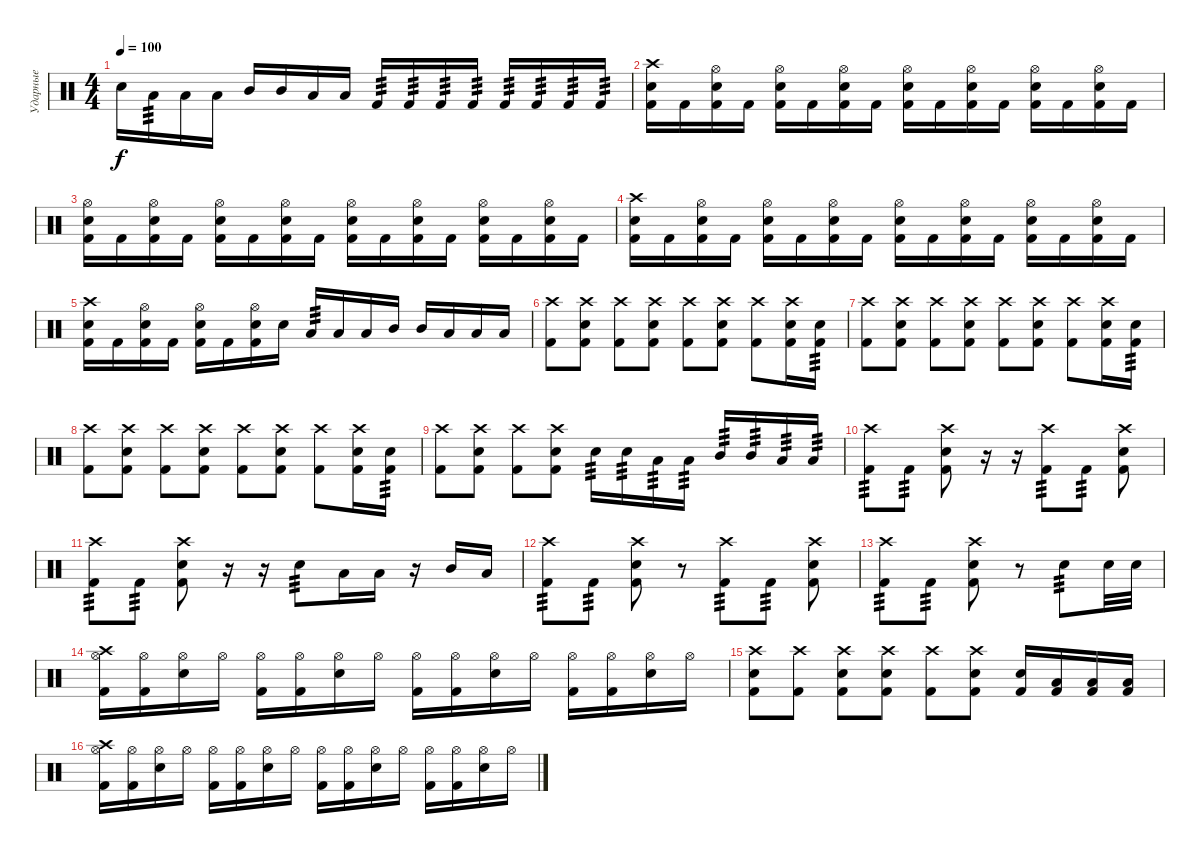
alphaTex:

\track ("Ударные" "Ударные") {instrument percussion}
\staff {score}
\articulation defaults
\ts (4 4)
\tempo 100
\clef neutral
\ks c "Snare (hit) 2".16{dy f} "Low Tom (hit)".16{tp 3} "Low Tom (hit)".16 "Low Tom (hit)".16 "Mid Tom (hit)".16 "Mid Tom (hit)".16 "Low Floor Tom (hit)".16 "Low Floor Tom (hit)".16 "Kick (hit) 2".16{tp 3} "Kick (hit) 2".16{tp 3} "Kick (hit) 2".16{tp 3} "Kick (hit) 2".16{tp 3} "Kick (hit) 2".16{tp 3} "Kick (hit) 2".16{tp 3} "Kick (hit) 2".16{tp 3} "Kick (hit) 2".16{tp 3}
|
("Crash high (hit)" "Snare (hit) 2" "Kick (hit) 2").16 "Kick (hit) 2".16 ("Hi-Hat (open)" "Snare (hit) 2" "Kick (hit) 2").16 "Kick (hit) 2".16 ("Hi-Hat (open)" "Snare (hit) 2" "Kick (hit) 2").16 "Kick (hit) 2".16 ("Hi-Hat (open)" "Snare (hit) 2" "Kick (hit) 2").16 "Kick (hit) 2".16 ("Hi-Hat (open)" "Snare (hit) 2" "Kick (hit) 2").16 "Kick (hit) 2".16 ("Hi-Hat (open)" "Snare (hit) 2" "Kick (hit) 2").16 "Kick (hit) 2".16 ("Hi-Hat (open)" "Snare (hit) 2" "Kick (hit) 2").16 "Kick (hit) 2".16 ("Hi-Hat (open)" "Snare (hit) 2" "Kick (hit) 2").16 "Kick (hit) 2".16 |
("Hi-Hat (open)" "Snare (hit) 2" "Kick (hit) 2").16 "Kick (hit) 2".16 ("Hi-Hat (open)" "Snare (hit) 2" "Kick (hit) 2").16 "Kick (hit) 2".16 ("Hi-Hat (open)" "Snare (hit) 2" "Kick (hit) 2").16 "Kick (hit) 2".16 ("Hi-Hat (open)" "Snare (hit) 2" "Kick (hit) 2").16 "Kick (hit) 2".16 ("Hi-Hat (open)" "Snare (hit) 2" "Kick (hit) 2").16 "Kick (hit) 2".16 ("Hi-Hat (open)" "Snare (hit) 2" "Kick (hit) 2").16 "Kick (hit) 2".16 ("Hi-Hat (open)" "Snare (hit) 2" "Kick (hit) 2").16 "Kick (hit) 2".16 ("Hi-Hat (open)" "Snare (hit) 2" "Kick (hit) 2").16 "Kick (hit) 2".16 |
("Crash high (hit)" "Snare (hit) 2" "Kick (hit) 2").16 "Kick (hit) 2".16 ("Hi-Hat (open)" "Snare (hit) 2" "Kick (hit) 2").16 "Kick (hit) 2".16 ("Hi-Hat (open)" "Snare (hit) 2" "Kick (hit) 2").16 "Kick (hit) 2".16 ("Hi-Hat (open)" "Snare (hit) 2" "Kick (hit) 2").16 "Kick (hit) 2".16 ("Hi-Hat (open)" "Snare (hit) 2" "Kick (hit) 2").16 "Kick (hit) 2".16 ("Hi-Hat (open)" "Snare (hit) 2" "Kick (hit) 2").16 "Kick (hit) 2".16 ("Hi-Hat (open)" "Snare (hit) 2" "Kick (hit) 2").16 "Kick (hit) 2".16 ("Hi-Hat (open)" "Snare (hit) 2" "Kick (hit) 2").16 "Kick (hit) 2".16 |
("Crash high (hit)" "Snare (hit) 2" "Kick (hit) 2").16 "Kick (hit) 2".16 ("Hi-Hat (open)" "Snare (hit) 2" "Kick (hit) 2").16 "Kick (hit) 2".16 ("Hi-Hat (open)" "Snare (hit) 2" "Kick (hit) 2").16 "Kick (hit) 2".16 ("Hi-Hat (open)" "Snare (hit) 2" "Kick (hit) 2").16 "Snare (hit) 2".16 "Low Tom (hit)".16{tp 3} "Low Tom (hit)".16 "Low Tom (hit)".16 "Mid Tom (hit)".16 "Mid Tom (hit)".16 "Low Floor Tom (hit)".16 "Low Floor Tom (hit)".16 "Low Floor Tom (hit)".16 |
("Crash high (hit)" "Kick (hit) 2").8 ("Crash high (hit)" "Snare (hit) 2" "Kick (hit) 2").8 ("Crash high (hit)" "Kick (hit) 2").8 ("Crash high (hit)" "Snare (hit) 2" "Kick (hit) 2").8 ("Crash high (hit)" "Kick (hit) 2").8 ("Crash high (hit)" "Snare (hit) 2" "Kick (hit) 2").8 ("Crash high (hit)" "Kick (hit) 2").8 ("Crash high (hit)" "Snare (hit) 2" "Kick (hit) 2").16 ("Snare (hit) 2" "Kick (hit) 2").16{tp 3} |
("Crash high (hit)" "Kick (hit) 2").8 ("Crash high (hit)" "Snare (hit) 2" "Kick (hit) 2").8 ("Crash high (hit)" "Kick (hit) 2").8 ("Crash high (hit)" "Snare (hit) 2" "Kick (hit) 2").8 ("Crash high (hit)" "Kick (hit) 2").8 ("Crash high (hit)" "Snare (hit) 2" "Kick (hit) 2").8 ("Crash high (hit)" "Kick (hit) 2").8 ("Crash high (hit)" "Snare (hit) 2" "Kick (hit) 2").16 ("Snare (hit) 2" "Kick (hit) 2").16{tp 3} |
("Crash high (hit)" "Kick (hit) 2").8 ("Crash high (hit)" "Snare (hit) 2" "Kick (hit) 2").8 ("Crash high (hit)" "Kick (hit) 2").8 ("Crash high (hit)" "Snare (hit) 2" "Kick (hit) 2").8 ("Crash high (hit)" "Kick (hit) 2").8 ("Crash high (hit)" "Snare (hit) 2" "Kick (hit) 2").8 ("Crash high (hit)" "Kick (hit) 2").8 ("Crash high (hit)" "Snare (hit) 2" "Kick (hit) 2").16 ("Snare (hit) 2" "Kick (hit) 2").16{tp 3} |
("Crash high (hit)" "Kick (hit) 2").8 ("Crash high (hit)" "Snare (hit) 2" "Kick (hit) 2").8 ("Crash high (hit)" "Kick (hit) 2").8 ("Crash high (hit)" "Snare (hit) 2" "Kick (hit) 2").8 "Snare (hit) 2".16{tp 3} "Snare (hit) 2".16{tp 3} "Low Tom (hit)".16{tp 3} "Low Tom (hit)".16{tp 3} "Mid Tom (hit)".16{tp 3} "Mid Tom (hit)".16{tp 3} "Low Floor Tom (hit)".16{tp 3} "Low Floor Tom (hit)".16{tp 3} |
("Crash high (hit)" "Kick (hit) 2").8{tp 3} "Kick (hit) 2".8{tp 3} ("Crash high (hit)" "Snare (hit) 2" "Kick (hit) 2").8 r.16 r.16 ("Crash high (hit)" "Kick (hit) 2").8{tp 3} "Kick (hit) 2".8{tp 3} ("Crash high (hit)" "Snare (hit) 2" "Kick (hit) 2").8 |
("Crash high (hit)" "Kick (hit) 2").8{tp 3} "Kick (hit) 2".8{tp 3} ("Crash high (hit)" "Snare (hit) 2" "Kick (hit) 2").8 r.16 r.16 "Snare (hit) 2".8{tp 3} "Low Tom (hit)".16 "Low Tom (hit)".16 r.16 "Mid Tom (hit)".16 "Low Floor Tom (hit)".16 |
("Crash high (hit)" "Kick (hit) 2").8{tp 3} "Kick (hit) 2".8{tp 3} ("Crash high (hit)" "Snare (hit) 2" "Kick (hit) 2").8 r.8 ("Crash high (hit)" "Kick (hit) 2").8{tp 3} "Kick (hit) 2".8{tp 3} ("Crash high (hit)" "Snare (hit) 2" "Kick (hit) 2").8 |
("Crash high (hit)" "Kick (hit) 2").8{tp 3} "Kick (hit) 2".8{tp 3} ("Crash high (hit)" "Snare (hit) 2" "Kick (hit) 2").8 r.8 "Snare (hit) 2".8{tp 3} "Snare (hit) 2".32 "Snare (hit) 2".32 |
("Hi-Hat (open)" "Crash high (hit)" "Kick (hit) 2").16 ("Hi-Hat (open)" "Kick (hit) 2").16 ("Hi-Hat (open)" "Snare (hit) 2").16 "Hi-Hat (open)".16 ("Hi-Hat (open)" "Kick (hit) 2").16 ("Hi-Hat (open)" "Kick (hit) 2").16 ("Hi-Hat (open)" "Snare (hit) 2").16 "Hi-Hat (open)".16 ("Hi-Hat (open)" "Kick (hit) 2").16 ("Hi-Hat (open)" "Kick (hit) 2").16 ("Hi-Hat (open)" "Snare (hit) 2").16 "Hi-Hat (open)".16 ("Hi-Hat (open)" "Kick (hit) 2").16 ("Hi-Hat (open)" "Kick (hit) 2").16 ("Hi-Hat (open)" "Snare (hit) 2").16 "Hi-Hat (open)".16 |
("Crash high (hit)" "Snare (hit) 2" "Kick (hit) 2").8 ("Crash high (hit)" "Kick (hit) 2").8 ("Crash high (hit)" "Snare (hit) 2" "Kick (hit) 2").8 ("Crash high (hit)" "Snare (hit) 2" "Kick (hit) 2").8 ("Crash high (hit)" "Kick (hit) 2").8 ("Crash high (hit)" "Snare (hit) 2" "Kick (hit) 2").8 ("Snare (hit) 2" "Kick (hit) 2").16 ("Low Tom (hit)" "Kick (hit) 2").16 ("Low Tom (hit)" "Kick (hit) 2").16 ("Low Floor Tom (hit)" "Kick (hit) 2").16 |
("Hi-Hat (open)" "Crash high (hit)" "Kick (hit) 2").16 ("Hi-Hat (open)" "Kick (hit) 2").16 ("Hi-Hat (open)" "Snare (hit) 2").16 "Hi-Hat (open)".16 ("Hi-Hat (open)" "Kick (hit) 2").16 ("Hi-Hat (open)" "Kick (hit) 2").16 ("Hi-Hat (open)" "Snare (hit) 2").16 "Hi-Hat (open)".16 ("Hi-Hat (open)" "Kick (hit) 2").16 ("Hi-Hat (open)" "Kick (hit) 2").16 ("Hi-Hat (open)" "Snare (hit) 2").16 "Hi-Hat (open)".16 ("Hi-Hat (open)" "Kick (hit) 2").16 ("Hi-Hat (open)" "Kick (hit) 2").16 ("Hi-Hat (open)" "Snare (hit) 2").16 "Hi-Hat (open)".16
